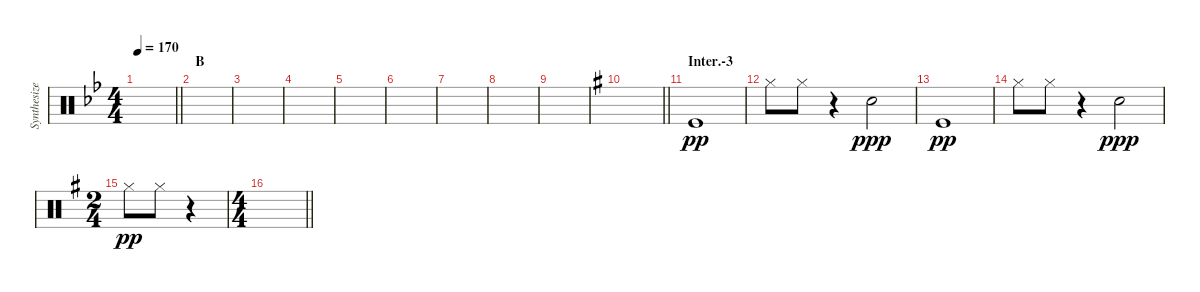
\track ("Synthesizer B" "Synthesize") {instrument percussion}
\staff {score}
\articulation defaults
\ts (4 4)
\tempo 170
\clef neutral
\barLineRight lightlight
\ks bb
|
\section ("" "B")
|
|
|
|
|
|
|
|
\barLineRight lightlight
\ks g
|
\section ("" "Inter.-3")
"Kick (hit)".1{dy pp} |
"Hi-Hat (closed)".8 "Hi-Hat (closed)".8 r.4 "Snare (hit) 2".2{dy ppp} |
"Kick (hit)".1{dy pp} |
"Hi-Hat (closed)".8 "Hi-Hat (closed)".8 r.4 "Snare (hit) 2".2{dy ppp} |
\ts (2 4)
"Hi-Hat (closed)".8{dy pp} "Hi-Hat (closed)".8 r.4 |
\ts (4 4)
\barLineRight lightlight
